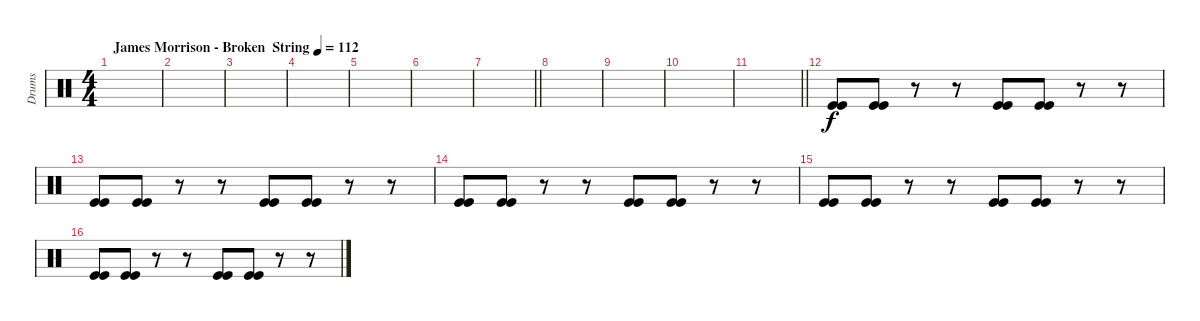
\track ("Drums" "Drums") {instrument percussion}
\staff {score}
\articulation defaults
\ts (4 4)
\tempo (112 "James Morrison - Broken  String")
\clef neutral
\ks c
|
|
|
|
|
|
\barLineRight lightlight
|
|
|
|
\barLineRight lightlight
|
("Kick (hit)" "Kick (hit)").8 ("Kick (hit)" "Kick (hit)").8 r.8 r.8 ("Kick (hit)" "Kick (hit)").8 ("Kick (hit)" "Kick (hit)").8 r.8 r.8 |
("Kick (hit)" "Kick (hit)").8 ("Kick (hit)" "Kick (hit)").8 r.8 r.8 ("Kick (hit)" "Kick (hit)").8 ("Kick (hit)" "Kick (hit)").8 r.8 r.8 |
("Kick (hit)" "Kick (hit)").8 ("Kick (hit)" "Kick (hit)").8 r.8 r.8 ("Kick (hit)" "Kick (hit)").8 ("Kick (hit)" "Kick (hit)").8 r.8 r.8 |
("Kick (hit)" "Kick (hit)").8 ("Kick (hit)" "Kick (hit)").8 r.8 r.8 ("Kick (hit)" "Kick (hit)").8 ("Kick (hit)" "Kick (hit)").8 r.8 r.8 |
("Kick (hit)" "Kick (hit)").8 ("Kick (hit)" "Kick (hit)").8 r.8 r.8 ("Kick (hit)" "Kick (hit)").8 ("Kick (hit)" "Kick (hit)").8 r.8 r.8
